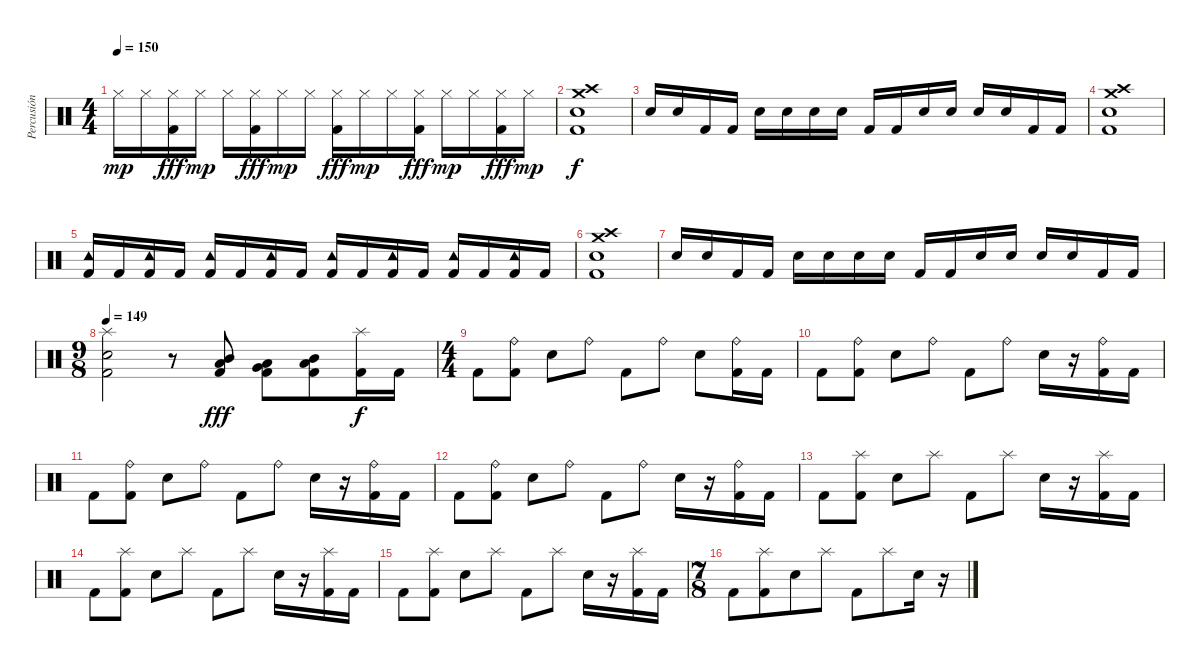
\track ("Percusión" "Percusión") {instrument percussion}
\staff {score}
\articulation defaults
\ts (4 4)
\tempo 150
\clef neutral
\ks c "Hi-Hat (closed)".16{dy mp} "Hi-Hat (closed)".16
("Hi-Hat (closed)" "Kick (hit) 2").16{dy fff} "Hi-Hat (closed)".16{dy mp} "Hi-Hat (closed)".16 ("Hi-Hat (closed)" "Kick (hit) 2").16{dy fff} "Hi-Hat (closed)".16{dy mp} "Hi-Hat (closed)".16 ("Hi-Hat (closed)" "Kick (hit) 2").16{dy fff} "Hi-Hat (closed)".16{dy mp} "Hi-Hat (closed)".16 ("Hi-Hat (closed)" "Kick (hit) 2").16{dy fff} "Hi-Hat (closed)".16{dy mp} "Hi-Hat (closed)".16 ("Hi-Hat (closed)" "Kick (hit) 2").16{dy fff} "Hi-Hat (closed)".16{dy mp} |
("Crash high (hit)" "Crash medium (hit)" "Electric Snare (hit)" "Kick (hit) 2").1{dy f} |
"Electric Snare (hit)".16 "Electric Snare (hit)".16 "Kick (hit) 2".16 "Kick (hit) 2".16 "Electric Snare (hit)".16 "Electric Snare (hit)".16 "Electric Snare (hit)".16 "Electric Snare (hit)".16 "Kick (hit) 2".16 "Kick (hit) 2".16 "Electric Snare (hit)".16 "Electric Snare (hit)".16 "Electric Snare (hit)".16 "Electric Snare (hit)".16 "Kick (hit) 2".16 "Kick (hit) 2".16 |
("Crash high (hit)" "Crash medium (hit)" "Electric Snare (hit)" "Kick (hit) 2").1 |
("Tambourine (hit)" "Kick (hit) 2").16 "Kick (hit) 2".16 ("Tambourine (hit)" "Kick (hit) 2").16 "Kick (hit) 2".16 ("Tambourine (hit)" "Kick (hit) 2").16 "Kick (hit) 2".16 ("Tambourine (hit)" "Kick (hit) 2").16 "Kick (hit) 2".16 ("Tambourine (hit)" "Kick (hit) 2").16 "Kick (hit) 2".16 ("Tambourine (hit)" "Kick (hit) 2").16 "Kick (hit) 2".16 ("Tambourine (hit)" "Kick (hit) 2").16 "Kick (hit) 2".16 ("Tambourine (hit)" "Kick (hit) 2").16 "Kick (hit) 2".16 |
("Crash high (hit)" "Crash medium (hit)" "Electric Snare (hit)" "Kick (hit) 2").1 |
"Electric Snare (hit)".16 "Electric Snare (hit)".16 "Kick (hit) 2".16 "Kick (hit) 2".16 "Electric Snare (hit)".16 "Electric Snare (hit)".16 "Electric Snare (hit)".16 "Electric Snare (hit)".16 "Kick (hit) 2".16 "Kick (hit) 2".16 "Electric Snare (hit)".16 "Electric Snare (hit)".16 "Electric Snare (hit)".16 "Electric Snare (hit)".16 "Kick (hit) 2".16 "Kick (hit) 2".16 |
\ts (9 8)
\tempo 149
("Splash (hit)" "Electric Snare (hit)" "Kick (hit) 2").2 r.8 ("Low Tom (hit)" "Mid Tom (hit)" "Kick (hit) 2").8{dy fff} ("Very Low Tom (hit)" "Low Tom (hit)" "Kick (hit) 2").8 ("Low Tom (hit)" "Mid Tom (hit)" "Kick (hit) 2").8 ("Splash (hit)" "Kick (hit) 2").16{dy f} "Kick (hit) 2".16 |
\ts (4 4)
"Kick (hit) 2".8 ("Ride (bell)" "Kick (hit) 2").8 "Electric Snare (hit)".8 "Ride (bell)".8 "Kick (hit) 2".8 "Ride (bell)".8 "Electric Snare (hit)".8 ("Ride (bell)" "Kick (hit) 2").16 "Kick (hit) 2".16 |
"Kick (hit) 2".8 ("Ride (bell)" "Kick (hit) 2").8 "Electric Snare (hit)".8 "Ride (bell)".8 "Kick (hit) 2".8 "Ride (bell)".8 "Electric Snare (hit)".16 r.16 ("Ride (bell)" "Kick (hit) 2").16 "Kick (hit) 2".16 |
"Kick (hit) 2".8 ("Ride (bell)" "Kick (hit) 2").8 "Electric Snare (hit)".8 "Ride (bell)".8 "Kick (hit) 2".8 "Ride (bell)".8 "Electric Snare (hit)".16 r.16 ("Ride (bell)" "Kick (hit) 2").16 "Kick (hit) 2".16 |
"Kick (hit) 2".8 ("Ride (bell)" "Kick (hit) 2").8 "Electric Snare (hit)".8 "Ride (bell)".8 "Kick (hit) 2".8 "Ride (bell)".8 "Electric Snare (hit)".16 r.16 ("Ride (bell)" "Kick (hit) 2").16 "Kick (hit) 2".16 |
"Kick (hit) 2".8 ("Splash (hit)" "Kick (hit) 2").8 "Electric Snare (hit)".8 "Splash (hit)".8 "Kick (hit) 2".8 "Splash (hit)".8 "Electric Snare (hit)".16 r.16 ("Splash (hit)" "Kick (hit) 2").16 "Kick (hit) 2".16 |
"Kick (hit) 2".8 ("Splash (hit)" "Kick (hit) 2").8 "Electric Snare (hit)".8 "Splash (hit)".8 "Kick (hit) 2".8 "Splash (hit)".8 "Electric Snare (hit)".16 r.16 ("Splash (hit)" "Kick (hit) 2").16 "Kick (hit) 2".16 |
"Kick (hit) 2".8 ("Splash (hit)" "Kick (hit) 2").8 "Electric Snare (hit)".8 "Splash (hit)".8 "Kick (hit) 2".8 "Splash (hit)".8 "Electric Snare (hit)".16 r.16 ("Splash (hit)" "Kick (hit) 2").16 "Kick (hit) 2".16 |
\ts (7 8)
"Kick (hit) 2".8 ("Splash (hit)" "Kick (hit) 2").8 "Electric Snare (hit)".8 "Splash (hit)".8 "Kick (hit) 2".8 "Splash (hit)".8 "Electric Snare (hit)".16 r.16
